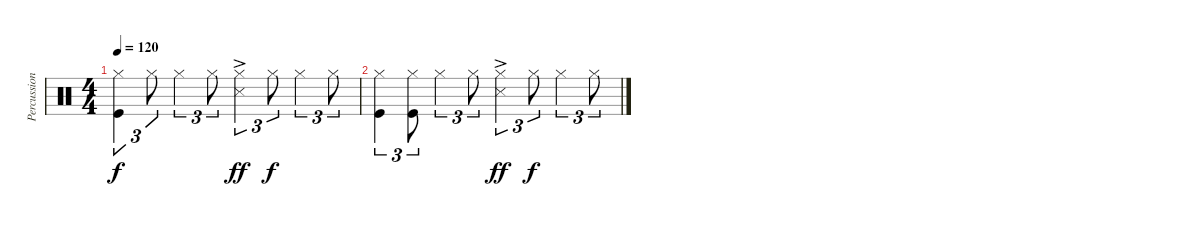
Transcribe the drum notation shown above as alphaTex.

\track ("Percussions" "Percussion") {instrument percussion bank 1}
\staff {score}
\articulation defaults
\ts (4 4)
\tempo 120
\clef neutral
\ks c
("Kick (hit)" "Hi-Hat (closed)").4{tu (3 2) dy f} "Hi-Hat (closed)".8{tu (3 2)} "Hi-Hat (closed)".4{tu (3 2)} "Hi-Hat (closed)".8{tu (3 2)} ("Snare (side stick) 3"{ac} "Hi-Hat (closed)").4{tu (3 2) dy ff} "Hi-Hat (closed)".8{tu (3 2) dy f} "Hi-Hat (closed)".4{tu (3 2)} "Hi-Hat (closed)".8{tu (3 2)} |
("Hi-Hat (closed)" "Kick (hit)").4{tu (3 2)} ("Kick (hit)" "Hi-Hat (closed)").8{tu (3 2)} "Hi-Hat (closed)".4{tu (3 2)} "Hi-Hat (closed)".8{tu (3 2)} ("Snare (side stick) 3"{ac} "Hi-Hat (closed)").4{tu (3 2) dy ff} "Hi-Hat (closed)".8{tu (3 2) dy f} "Hi-Hat (closed)".4{tu (3 2)} "Hi-Hat (closed)".8{tu (3 2)}
